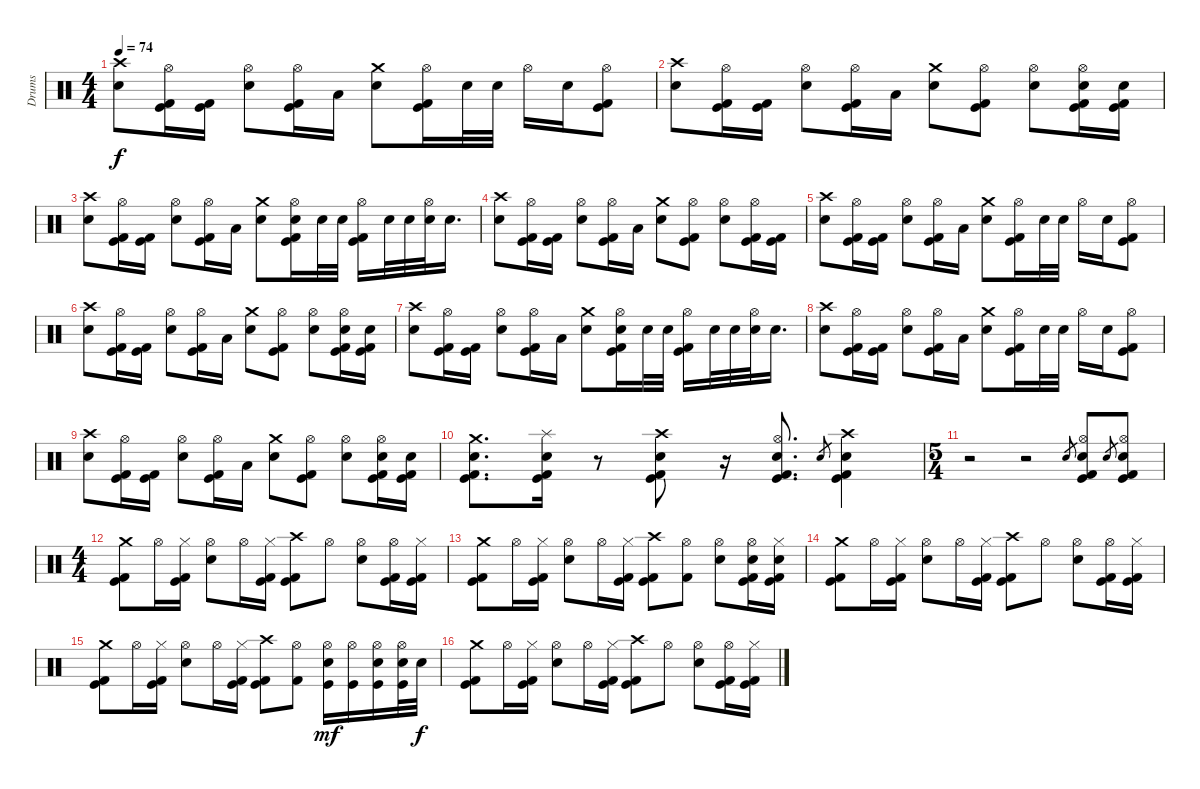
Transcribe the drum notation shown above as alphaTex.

\track ("Drums" "Drums") {instrument percussion}
\staff {score}
\articulation defaults
\ts (4 4)
\tempo 74
\clef neutral
\ks c
("Crash high (hit)" "Electric Snare (hit)").8{dy f} ("Hi-Hat (open)" "Kick (hit) 2" "Kick (hit)").16 ("Kick (hit) 2" "Kick (hit)").16 ("Hi-Hat (open)" "Electric Snare (hit)").8 ("Hi-Hat (open)" "Kick (hit) 2" "Kick (hit)").16 "Low Tom (hit)".16 ("Crash medium (hit)" "Electric Snare (hit)").8 ("Hi-Hat (open)" "Kick (hit) 2" "Kick (hit)").16 "Electric Snare (hit)".32 "Electric Snare (hit)".32 "Hi-Hat (open)".16 "Electric Snare (hit)".16 ("Hi-Hat (open)" "Kick (hit) 2" "Kick (hit)").8 |
("Crash high (hit)" "Electric Snare (hit)").8 ("Hi-Hat (open)" "Kick (hit) 2" "Kick (hit)").16 ("Kick (hit) 2" "Kick (hit)").16 ("Hi-Hat (open)" "Electric Snare (hit)").8 ("Hi-Hat (open)" "Kick (hit) 2" "Kick (hit)").16 "Low Tom (hit)".16 ("Crash medium (hit)" "Electric Snare (hit)").8 ("Hi-Hat (open)" "Kick (hit) 2" "Kick (hit)").8 ("Hi-Hat (open)" "Electric Snare (hit)").8 ("Hi-Hat (open)" "Electric Snare (hit)" "Kick (hit) 2" "Kick (hit)").16 ("Electric Snare (hit)" "Kick (hit) 2" "Kick (hit)").16 |
("Crash high (hit)" "Electric Snare (hit)").8 ("Hi-Hat (open)" "Kick (hit) 2" "Kick (hit)").16 ("Kick (hit) 2" "Kick (hit)").16 ("Hi-Hat (open)" "Electric Snare (hit)").8 ("Hi-Hat (open)" "Kick (hit) 2" "Kick (hit)").16 "Low Tom (hit)".16 ("Crash medium (hit)" "Electric Snare (hit)").8 ("Hi-Hat (open)" "Electric Snare (hit)" "Kick (hit) 2" "Kick (hit)").16 "Electric Snare (hit)".32 "Electric Snare (hit)".32 ("Hi-Hat (open)" "Kick (hit) 2" "Kick (hit)").16 "Electric Snare (hit)".32 "Electric Snare (hit)".32 ("Hi-Hat (open)" "Electric Snare (hit)").32 "Electric Snare (hit)".16{d} |
("Crash high (hit)" "Electric Snare (hit)").8 ("Hi-Hat (open)" "Kick (hit) 2" "Kick (hit)").16 ("Kick (hit) 2" "Kick (hit)").16 ("Hi-Hat (open)" "Electric Snare (hit)").8 ("Hi-Hat (open)" "Kick (hit) 2" "Kick (hit)").16 "Low Tom (hit)".16 ("Crash medium (hit)" "Electric Snare (hit)").8 ("Hi-Hat (open)" "Kick (hit) 2" "Kick (hit)").8 ("Hi-Hat (open)" "Electric Snare (hit)").8 ("Hi-Hat (open)" "Kick (hit) 2" "Kick (hit)").16 ("Kick (hit) 2" "Kick (hit)").16 |
("Crash high (hit)" "Electric Snare (hit)").8 ("Hi-Hat (open)" "Kick (hit) 2" "Kick (hit)").16 ("Kick (hit) 2" "Kick (hit)").16 ("Hi-Hat (open)" "Electric Snare (hit)").8 ("Hi-Hat (open)" "Kick (hit) 2" "Kick (hit)").16 "Low Tom (hit)".16 ("Crash medium (hit)" "Electric Snare (hit)").8 ("Hi-Hat (open)" "Kick (hit) 2" "Kick (hit)").16 "Electric Snare (hit)".32 "Electric Snare (hit)".32 "Hi-Hat (open)".16 "Electric Snare (hit)".16 ("Hi-Hat (open)" "Kick (hit) 2" "Kick (hit)").8 |
("Crash high (hit)" "Electric Snare (hit)").8 ("Hi-Hat (open)" "Kick (hit) 2" "Kick (hit)").16 ("Kick (hit) 2" "Kick (hit)").16 ("Hi-Hat (open)" "Electric Snare (hit)").8 ("Hi-Hat (open)" "Kick (hit) 2" "Kick (hit)").16 "Low Tom (hit)".16 ("Crash medium (hit)" "Electric Snare (hit)").8 ("Hi-Hat (open)" "Kick (hit) 2" "Kick (hit)").8 ("Hi-Hat (open)" "Electric Snare (hit)").8 ("Hi-Hat (open)" "Electric Snare (hit)" "Kick (hit) 2" "Kick (hit)").16 ("Electric Snare (hit)" "Kick (hit) 2" "Kick (hit)").16 |
("Crash high (hit)" "Electric Snare (hit)").8 ("Hi-Hat (open)" "Kick (hit) 2" "Kick (hit)").16 ("Kick (hit) 2" "Kick (hit)").16 ("Hi-Hat (open)" "Electric Snare (hit)").8 ("Hi-Hat (open)" "Kick (hit) 2" "Kick (hit)").16 "Low Tom (hit)".16 ("Crash medium (hit)" "Electric Snare (hit)").8 ("Hi-Hat (open)" "Electric Snare (hit)" "Kick (hit) 2" "Kick (hit)").16 "Electric Snare (hit)".32 "Electric Snare (hit)".32 ("Hi-Hat (open)" "Kick (hit) 2" "Kick (hit)").16 "Electric Snare (hit)".32 "Electric Snare (hit)".32 ("Hi-Hat (open)" "Electric Snare (hit)").32 "Electric Snare (hit)".16{d} |
("Crash high (hit)" "Electric Snare (hit)").8 ("Hi-Hat (open)" "Kick (hit) 2" "Kick (hit)").16 ("Kick (hit) 2" "Kick (hit)").16 ("Hi-Hat (open)" "Electric Snare (hit)").8 ("Hi-Hat (open)" "Kick (hit) 2" "Kick (hit)").16 "Low Tom (hit)".16 ("Crash medium (hit)" "Electric Snare (hit)").8 ("Hi-Hat (open)" "Kick (hit) 2" "Kick (hit)").16 "Electric Snare (hit)".32 "Electric Snare (hit)".32 "Hi-Hat (open)".16 "Electric Snare (hit)".16 ("Hi-Hat (open)" "Kick (hit) 2" "Kick (hit)").8 |
("Crash high (hit)" "Electric Snare (hit)").8 ("Hi-Hat (open)" "Kick (hit) 2" "Kick (hit)").16 ("Kick (hit) 2" "Kick (hit)").16 ("Hi-Hat (open)" "Electric Snare (hit)").8 ("Hi-Hat (open)" "Kick (hit) 2" "Kick (hit)").16 "Low Tom (hit)".16 ("Crash medium (hit)" "Electric Snare (hit)").8 ("Hi-Hat (open)" "Kick (hit) 2" "Kick (hit)").8 ("Hi-Hat (open)" "Electric Snare (hit)").8 ("Hi-Hat (open)" "Electric Snare (hit)" "Kick (hit) 2" "Kick (hit)").16 ("Electric Snare (hit)" "Kick (hit) 2" "Kick (hit)").16 |
("Crash medium (hit)" "Electric Snare (hit)" "Kick (hit) 2" "Kick (hit)").8{d} ("Splash (hit)" "Electric Snare (hit)" "Kick (hit) 2" "Kick (hit)").16 r.8 ("Crash high (hit)" "Electric Snare (hit)" "Kick (hit) 2" "Kick (hit)").8 r.16 ("Hi-Hat (open)" "Electric Snare (hit)" "Kick (hit) 2" "Kick (hit)").8{d} "Electric Snare (hit)".8{gr} ("Crash high (hit)" "Electric Snare (hit)" "Kick (hit) 2" "Kick (hit)").4 |
\ts (5 4)
r.2 r.2 "Electric Snare (hit)".8{gr} ("Hi-Hat (open)" "Electric Snare (hit)" "Kick (hit) 2" "Kick (hit)").8 "Electric Snare (hit)".8{gr} ("Hi-Hat (open)" "Electric Snare (hit)" "Kick (hit) 2" "Kick (hit)").8 |
\ts (4 4)
("Crash medium (hit)" "Kick (hit) 2" "Kick (hit)").8 "Hi-Hat (open)".16 ("Hi-Hat (closed)" "Kick (hit) 2" "Kick (hit)").16 ("Hi-Hat (open)" "Electric Snare (hit)").8 "Hi-Hat (open)".16 ("Hi-Hat (closed)" "Kick (hit) 2" "Kick (hit)").16 ("Crash high (hit)" "Kick (hit) 2" "Kick (hit)").8 "Hi-Hat (open)".8 ("Hi-Hat (open)" "Electric Snare (hit)").8 ("Hi-Hat (open)" "Kick (hit) 2" "Kick (hit)").16 ("Hi-Hat (closed)" "Kick (hit) 2" "Kick (hit)").16 |
("Crash medium (hit)" "Kick (hit) 2" "Kick (hit)").8 "Hi-Hat (open)".16 ("Hi-Hat (closed)" "Kick (hit) 2" "Kick (hit)").16 ("Hi-Hat (open)" "Electric Snare (hit)").8 "Hi-Hat (open)".16 ("Hi-Hat (closed)" "Kick (hit) 2" "Kick (hit)").16 ("Crash high (hit)" "Kick (hit) 2" "Kick (hit)").8 ("Hi-Hat (open)" "Kick (hit) 2").8 ("Hi-Hat (open)" "Electric Snare (hit)").8 ("Hi-Hat (open)" "Electric Snare (hit)" "Kick (hit) 2" "Kick (hit)").16 ("Hi-Hat (closed)" "Electric Snare (hit)" "Kick (hit) 2" "Kick (hit)").16 |
("Crash medium (hit)" "Kick (hit) 2" "Kick (hit)").8 "Hi-Hat (open)".16 ("Hi-Hat (closed)" "Kick (hit) 2" "Kick (hit)").16 ("Hi-Hat (open)" "Electric Snare (hit)").8 "Hi-Hat (open)".16 ("Hi-Hat (closed)" "Kick (hit) 2" "Kick (hit)").16 ("Crash high (hit)" "Kick (hit) 2" "Kick (hit)").8 "Hi-Hat (open)".8 ("Hi-Hat (open)" "Electric Snare (hit)").8 ("Hi-Hat (open)" "Kick (hit) 2" "Kick (hit)").16 ("Hi-Hat (closed)" "Kick (hit) 2" "Kick (hit)").16 |
("Crash medium (hit)" "Kick (hit) 2" "Kick (hit)").8 "Hi-Hat (open)".16 ("Hi-Hat (closed)" "Kick (hit) 2" "Kick (hit)").16 ("Hi-Hat (open)" "Electric Snare (hit)").8 "Hi-Hat (open)".16 ("Hi-Hat (closed)" "Kick (hit) 2" "Kick (hit)").16 ("Crash high (hit)" "Kick (hit) 2" "Kick (hit)").8 ("Hi-Hat (open)" "Kick (hit) 2").8 ("Hi-Hat (open)" "Electric Snare (hit)" "Kick (hit)").16{dy mf} ("Hi-Hat (open)" "Kick (hit)").16 ("Hi-Hat (open)" "Electric Snare (hit)" "Kick (hit)").16 ("Hi-Hat (open)" "Electric Snare (hit)" "Kick (hit)").32 "Electric Snare (hit)".32{dy f} |
("Crash medium (hit)" "Kick (hit) 2" "Kick (hit)").8 "Hi-Hat (open)".16 ("Hi-Hat (closed)" "Kick (hit) 2" "Kick (hit)").16 ("Hi-Hat (open)" "Electric Snare (hit)").8 "Hi-Hat (open)".16 ("Hi-Hat (closed)" "Kick (hit) 2" "Kick (hit)").16 ("Crash high (hit)" "Kick (hit) 2" "Kick (hit)").8 "Hi-Hat (open)".8 ("Hi-Hat (open)" "Electric Snare (hit)").8 ("Hi-Hat (open)" "Kick (hit) 2" "Kick (hit)").16 ("Hi-Hat (closed)" "Kick (hit) 2" "Kick (hit)").16
